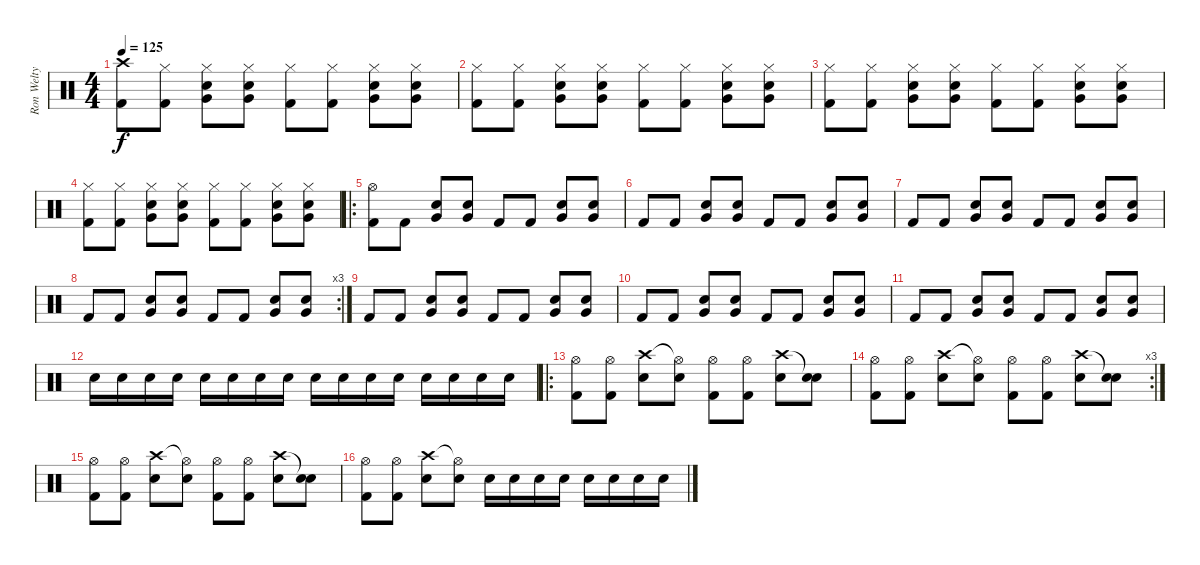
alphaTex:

\track ("Ron Welty" "Ron Welty") {instrument percussion}
\staff {score}
\articulation defaults
\ts (4 4)
\tempo 125
\clef neutral
\ks c
("Kick (hit) 2" "Crash high (hit)").8{dy f} ("Kick (hit) 2" "Hi-Hat (closed)").8 ("Snare (hit) 2" "Very Low Tom (hit)" "Hi-Hat (closed)").8 ("Snare (hit) 2" "Very Low Tom (hit)" "Hi-Hat (closed)").8 ("Kick (hit) 2" "Hi-Hat (closed)").8 ("Kick (hit) 2" "Hi-Hat (closed)").8 ("Snare (hit) 2" "Very Low Tom (hit)" "Hi-Hat (closed)").8 ("Snare (hit) 2" "Very Low Tom (hit)" "Hi-Hat (closed)").8 |
("Kick (hit) 2" "Hi-Hat (closed)").8 ("Kick (hit) 2" "Hi-Hat (closed)").8 ("Snare (hit) 2" "Very Low Tom (hit)" "Hi-Hat (closed)").8 ("Snare (hit) 2" "Very Low Tom (hit)" "Hi-Hat (closed)").8 ("Kick (hit) 2" "Hi-Hat (closed)").8 ("Kick (hit) 2" "Hi-Hat (closed)").8 ("Snare (hit) 2" "Very Low Tom (hit)" "Hi-Hat (closed)").8 ("Snare (hit) 2" "Very Low Tom (hit)" "Hi-Hat (closed)").8 |
("Kick (hit) 2" "Hi-Hat (closed)").8 ("Kick (hit) 2" "Hi-Hat (closed)").8 ("Snare (hit) 2" "Very Low Tom (hit)" "Hi-Hat (closed)").8 ("Snare (hit) 2" "Very Low Tom (hit)" "Hi-Hat (closed)").8 ("Kick (hit) 2" "Hi-Hat (closed)").8 ("Kick (hit) 2" "Hi-Hat (closed)").8 ("Snare (hit) 2" "Very Low Tom (hit)" "Hi-Hat (closed)").8 ("Snare (hit) 2" "Very Low Tom (hit)" "Hi-Hat (closed)").8 |
("Kick (hit) 2" "Hi-Hat (closed)").8 ("Kick (hit) 2" "Hi-Hat (closed)").8 ("Snare (hit) 2" "Very Low Tom (hit)" "Hi-Hat (closed)").8 ("Snare (hit) 2" "Very Low Tom (hit)" "Hi-Hat (closed)").8 ("Kick (hit) 2" "Hi-Hat (closed)").8 ("Kick (hit) 2" "Hi-Hat (closed)").8 ("Snare (hit) 2" "Very Low Tom (hit)" "Hi-Hat (closed)").8 ("Snare (hit) 2" "Very Low Tom (hit)" "Hi-Hat (closed)").8 |
\ro
("Kick (hit) 2" "Hi-Hat (open)").8 "Kick (hit) 2".8 ("Snare (hit) 2" "Very Low Tom (hit)").8 ("Snare (hit) 2" "Very Low Tom (hit)").8 "Kick (hit) 2".8 "Kick (hit) 2".8 ("Snare (hit) 2" "Very Low Tom (hit)").8 ("Snare (hit) 2" "Very Low Tom (hit)").8 |
"Kick (hit) 2".8 "Kick (hit) 2".8 ("Snare (hit) 2" "Very Low Tom (hit)").8 ("Snare (hit) 2" "Very Low Tom (hit)").8 "Kick (hit) 2".8 "Kick (hit) 2".8 ("Snare (hit) 2" "Very Low Tom (hit)").8 ("Snare (hit) 2" "Very Low Tom (hit)").8 |
"Kick (hit) 2".8 "Kick (hit) 2".8 ("Snare (hit) 2" "Very Low Tom (hit)").8 ("Snare (hit) 2" "Very Low Tom (hit)").8 "Kick (hit) 2".8 "Kick (hit) 2".8 ("Snare (hit) 2" "Very Low Tom (hit)").8 ("Snare (hit) 2" "Very Low Tom (hit)").8 |
\rc 3 "Kick (hit) 2".8 "Kick (hit) 2".8
("Snare (hit) 2" "Very Low Tom (hit)").8 ("Snare (hit) 2" "Very Low Tom (hit)").8 "Kick (hit) 2".8 "Kick (hit) 2".8 ("Snare (hit) 2" "Very Low Tom (hit)").8 ("Snare (hit) 2" "Very Low Tom (hit)").8 |
"Kick (hit) 2".8 "Kick (hit) 2".8 ("Snare (hit) 2" "Very Low Tom (hit)").8 ("Snare (hit) 2" "Very Low Tom (hit)").8 "Kick (hit) 2".8 "Kick (hit) 2".8 ("Snare (hit) 2" "Very Low Tom (hit)").8 ("Snare (hit) 2" "Very Low Tom (hit)").8 |
"Kick (hit) 2".8 "Kick (hit) 2".8 ("Snare (hit) 2" "Very Low Tom (hit)").8 ("Snare (hit) 2" "Very Low Tom (hit)").8 "Kick (hit) 2".8 "Kick (hit) 2".8 ("Snare (hit) 2" "Very Low Tom (hit)").8 ("Snare (hit) 2" "Very Low Tom (hit)").8 |
"Kick (hit) 2".8 "Kick (hit) 2".8 ("Snare (hit) 2" "Very Low Tom (hit)").8 ("Snare (hit) 2" "Very Low Tom (hit)").8 "Kick (hit) 2".8 "Kick (hit) 2".8 ("Snare (hit) 2" "Very Low Tom (hit)").8 ("Snare (hit) 2" "Very Low Tom (hit)").8 |
"Snare (hit) 2".16 "Snare (hit) 2".16 "Snare (hit) 2".16 "Snare (hit) 2".16 "Snare (hit) 2".16 "Snare (hit) 2".16 "Snare (hit) 2".16 "Snare (hit) 2".16 "Snare (hit) 2".16 "Snare (hit) 2".16 "Snare (hit) 2".16 "Snare (hit) 2".16 "Snare (hit) 2".16 "Snare (hit) 2".16 "Snare (hit) 2".16 "Snare (hit) 2".16 |
\ro
("Kick (hit) 2" "Hi-Hat (open)").8 ("Kick (hit) 2" "Hi-Hat (open)").8 ("Snare (hit) 2" "Crash high (hit)").8 ("Snare (hit) 2" "Hi-Hat (open)"{t}).8 ("Kick (hit) 2" "Hi-Hat (open)").8 ("Kick (hit) 2" "Hi-Hat (open)").8 ("Snare (hit) 2" "Crash high (hit)").8 ("Snare (hit) 2" "Snare (hit)"{t}).8 |
\rc 3
("Kick (hit) 2" "Hi-Hat (open)").8 ("Kick (hit) 2" "Hi-Hat (open)").8 ("Snare (hit) 2" "Crash high (hit)").8 ("Snare (hit) 2" "Hi-Hat (open)"{t}).8 ("Kick (hit) 2" "Hi-Hat (open)").8 ("Kick (hit) 2" "Hi-Hat (open)").8 ("Snare (hit) 2" "Crash high (hit)").8 ("Snare (hit) 2" "Snare (hit)"{t}).8 |
("Kick (hit) 2" "Hi-Hat (open)").8 ("Kick (hit) 2" "Hi-Hat (open)").8 ("Snare (hit) 2" "Crash high (hit)").8 ("Snare (hit) 2" "Hi-Hat (open)"{t}).8 ("Kick (hit) 2" "Hi-Hat (open)").8 ("Kick (hit) 2" "Hi-Hat (open)").8 ("Snare (hit) 2" "Crash high (hit)").8 ("Snare (hit) 2" "Snare (hit)"{t}).8 |
("Kick (hit) 2" "Hi-Hat (open)").8 ("Kick (hit) 2" "Hi-Hat (open)").8 ("Snare (hit) 2" "Crash high (hit)").8 ("Snare (hit) 2" "Hi-Hat (open)"{t}).8 "Snare (hit) 2".16 "Snare (hit) 2".16 "Snare (hit) 2".16 "Snare (hit) 2".16 "Snare (hit) 2".16 "Snare (hit) 2".16 "Snare (hit) 2".16 "Snare (hit) 2".16
